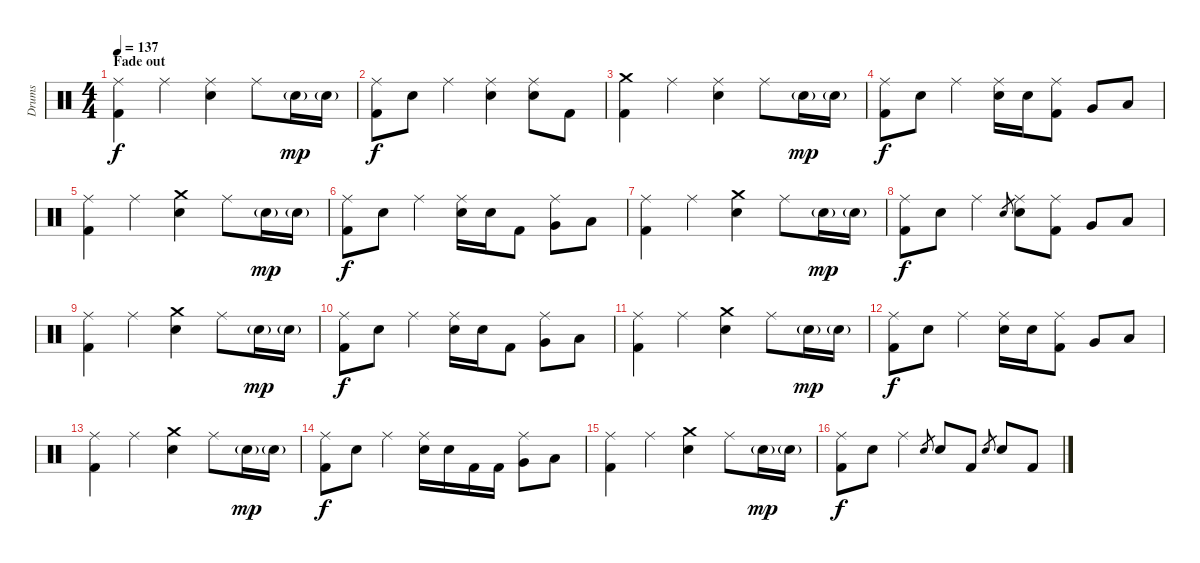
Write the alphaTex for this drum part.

\track ("Drums" "Drums") {instrument percussion}
\staff {score}
\articulation defaults
\ts (4 4)
\section ("" "Fade out")
\tempo 137
\clef neutral
\ks c
("Ride (middle)" "Kick (hit) 2").4{dy f} "Ride (middle)".4 ("Ride (middle)" "Electric Snare (hit)").4 "Ride (middle)".8 "Electric Snare (hit)"{g}.16{dy mp} "Electric Snare (hit)"{g}.16 |
("Ride (middle)" "Kick (hit) 2").8{dy f} "Electric Snare (hit)".8 "Ride (middle)".4 ("Ride (middle)" "Electric Snare (hit)").4 ("Ride (middle)" "Electric Snare (hit)").8 "Kick (hit) 2".8 |
("Crash medium (hit)" "Kick (hit) 2").4 "Ride (middle)".4 ("Ride (middle)" "Electric Snare (hit)").4 "Ride (middle)".8 "Electric Snare (hit)"{g}.16{dy mp} "Electric Snare (hit)"{g}.16 |
("Ride (middle)" "Kick (hit) 2").8{dy f} "Electric Snare (hit)".8 "Ride (middle)".4 ("Ride (middle)" "Electric Snare (hit)").16 "Electric Snare (hit)".16 ("Ride (middle)" "Kick (hit) 2").8 "Very Low Tom (hit)".8 "Low Floor Tom (hit)".8 |
("Ride (middle)" "Kick (hit) 2").4 "Ride (middle)".4 ("Crash medium (hit)" "Electric Snare (hit)").4 "Ride (middle)".8 "Electric Snare (hit)"{g}.16{dy mp} "Electric Snare (hit)"{g}.16 |
("Ride (middle)" "Kick (hit) 2").8{dy f} "Electric Snare (hit)".8 "Ride (middle)".4 ("Ride (middle)" "Electric Snare (hit)").16 "Electric Snare (hit)".16 "Kick (hit) 2".8 ("Ride (middle)" "Very Low Tom (hit)").8 "Low Floor Tom (hit)".8 |
("Ride (middle)" "Kick (hit) 2").4 "Ride (middle)".4 ("Crash medium (hit)" "Electric Snare (hit)").4 "Ride (middle)".8 "Electric Snare (hit)"{g}.16{dy mp} "Electric Snare (hit)"{g}.16 |
("Ride (middle)" "Kick (hit) 2").8{dy f} "Electric Snare (hit)".8 "Ride (middle)".4 "Electric Snare (hit)".8{gr} ("Ride (middle)" "Electric Snare (hit)").8 ("Ride (middle)" "Kick (hit) 2").8 "Very Low Tom (hit)".8 "Low Floor Tom (hit)".8 |
("Ride (middle)" "Kick (hit) 2").4 "Ride (middle)".4 ("Crash medium (hit)" "Electric Snare (hit)").4 "Ride (middle)".8 "Electric Snare (hit)"{g}.16{dy mp} "Electric Snare (hit)"{g}.16 |
("Ride (middle)" "Kick (hit) 2").8{dy f} "Electric Snare (hit)".8 "Ride (middle)".4 ("Ride (middle)" "Electric Snare (hit)").16 "Electric Snare (hit)".16 "Kick (hit) 2".8 ("Ride (middle)" "Very Low Tom (hit)").8 "Low Floor Tom (hit)".8 |
("Ride (middle)" "Kick (hit) 2").4 "Ride (middle)".4 ("Crash medium (hit)" "Electric Snare (hit)").4 "Ride (middle)".8 "Electric Snare (hit)"{g}.16{dy mp} "Electric Snare (hit)"{g}.16 |
("Ride (middle)" "Kick (hit) 2").8{dy f} "Electric Snare (hit)".8 "Ride (middle)".4 ("Ride (middle)" "Electric Snare (hit)").16 "Electric Snare (hit)".16 ("Ride (middle)" "Kick (hit) 2").8 "Very Low Tom (hit)".8 "Low Floor Tom (hit)".8 |
("Ride (middle)" "Kick (hit) 2").4 "Ride (middle)".4 ("Crash medium (hit)" "Electric Snare (hit)").4 "Ride (middle)".8 "Electric Snare (hit)"{g}.16{dy mp} "Electric Snare (hit)"{g}.16 |
("Ride (middle)" "Kick (hit) 2").8{dy f} "Electric Snare (hit)".8 "Ride (middle)".4 ("Ride (middle)" "Electric Snare (hit)").16 "Electric Snare (hit)".16 "Kick (hit) 2".16 "Kick (hit) 2".16 ("Ride (middle)" "Very Low Tom (hit)").8 "Low Floor Tom (hit)".8 |
("Ride (middle)" "Kick (hit) 2").4 "Ride (middle)".4 ("Crash medium (hit)" "Electric Snare (hit)").4 "Ride (middle)".8 "Electric Snare (hit)"{g}.16{dy mp} "Electric Snare (hit)"{g}.16 |
("Ride (middle)" "Kick (hit) 2").8{dy f} "Electric Snare (hit)".8 "Ride (middle)".4 "Electric Snare (hit)".8{gr} "Electric Snare (hit)".8 "Kick (hit) 2".8 "Electric Snare (hit)".8{gr} "Electric Snare (hit)".8 "Kick (hit) 2".8
